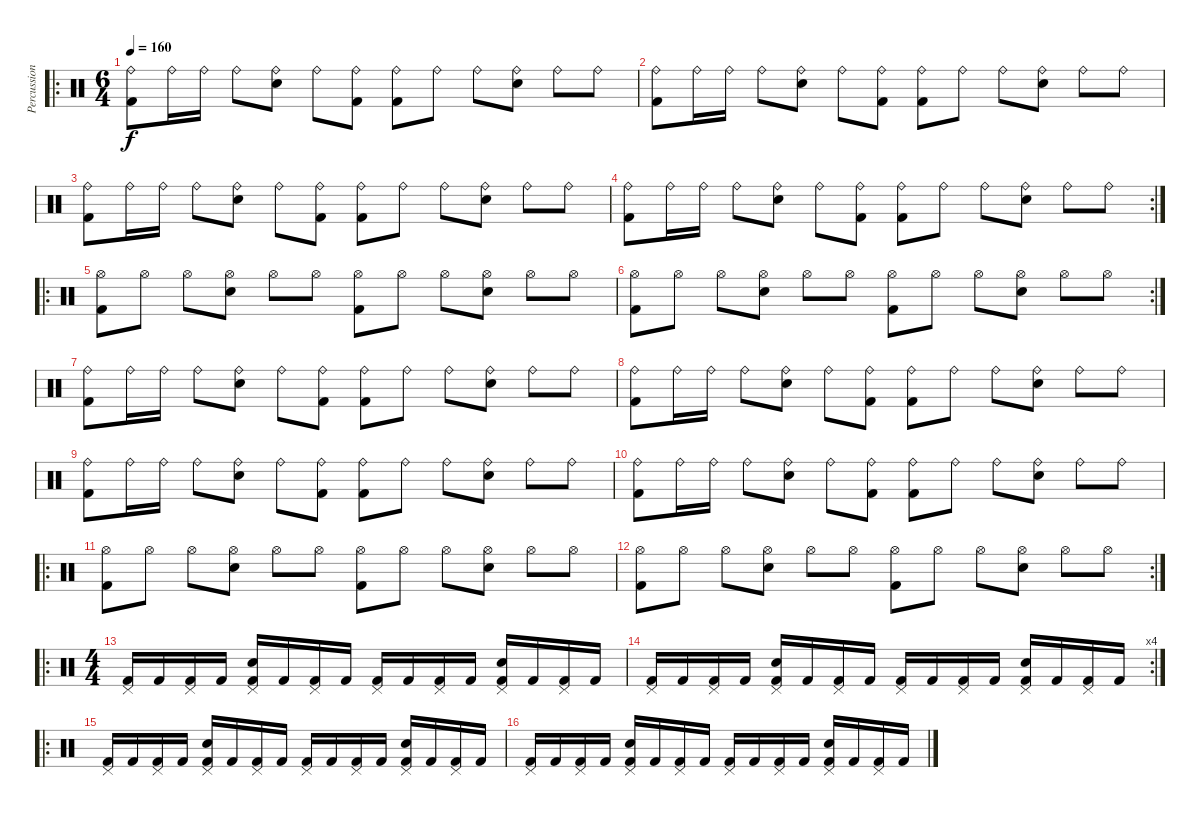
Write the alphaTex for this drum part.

\track ("Percussion" "Percussion") {instrument percussion}
\staff {score}
\articulation defaults
\ro
\ts (6 4)
\tempo 160
\clef neutral
\ks c
("Ride (bell)" "Kick (hit) 2").8{dy f} "Ride (bell)".16 "Ride (bell)".16 "Ride (bell)".8 ("Ride (bell)" "Snare (hit) 2").8 "Ride (bell)".8 ("Ride (bell)" "Kick (hit) 2").8 ("Ride (bell)" "Kick (hit) 2").8 "Ride (bell)".8 "Ride (bell)".8 ("Ride (bell)" "Snare (hit) 2").8 "Ride (bell)".8 "Ride (bell)".8 |
("Ride (bell)" "Kick (hit) 2").8 "Ride (bell)".16 "Ride (bell)".16 "Ride (bell)".8 ("Ride (bell)" "Snare (hit) 2").8 "Ride (bell)".8 ("Ride (bell)" "Kick (hit) 2").8 ("Ride (bell)" "Kick (hit) 2").8 "Ride (bell)".8 "Ride (bell)".8 ("Ride (bell)" "Snare (hit) 2").8 "Ride (bell)".8 "Ride (bell)".8 |
("Ride (bell)" "Kick (hit) 2").8 "Ride (bell)".16 "Ride (bell)".16 "Ride (bell)".8 ("Ride (bell)" "Snare (hit) 2").8 "Ride (bell)".8 ("Ride (bell)" "Kick (hit) 2").8 ("Ride (bell)" "Kick (hit) 2").8 "Ride (bell)".8 "Ride (bell)".8 ("Ride (bell)" "Snare (hit) 2").8 "Ride (bell)".8 "Ride (bell)".8 |
\rc 2
("Ride (bell)" "Kick (hit) 2").8 "Ride (bell)".16 "Ride (bell)".16 "Ride (bell)".8 ("Ride (bell)" "Snare (hit) 2").8 "Ride (bell)".8 ("Ride (bell)" "Kick (hit) 2").8 ("Ride (bell)" "Kick (hit) 2").8 "Ride (bell)".8 "Ride (bell)".8 ("Ride (bell)" "Snare (hit) 2").8 "Ride (bell)".8 "Ride (bell)".8 |
\ro
("Hi-Hat (open)" "Kick (hit) 2").8 "Hi-Hat (open)".8 "Hi-Hat (open)".8 ("Hi-Hat (open)" "Snare (hit) 2").8 "Hi-Hat (open)".8 "Hi-Hat (open)".8 ("Hi-Hat (open)" "Kick (hit) 2").8 "Hi-Hat (open)".8 "Hi-Hat (open)".8 ("Hi-Hat (open)" "Snare (hit) 2").8 "Hi-Hat (open)".8 "Hi-Hat (open)".8 |
\rc 2
("Hi-Hat (open)" "Kick (hit) 2").8 "Hi-Hat (open)".8 "Hi-Hat (open)".8 ("Hi-Hat (open)" "Snare (hit) 2").8 "Hi-Hat (open)".8 "Hi-Hat (open)".8 ("Hi-Hat (open)" "Kick (hit) 2").8 "Hi-Hat (open)".8 "Hi-Hat (open)".8 ("Hi-Hat (open)" "Snare (hit) 2").8 "Hi-Hat (open)".8 "Hi-Hat (open)".8 |
("Ride (bell)" "Kick (hit) 2").8 "Ride (bell)".16 "Ride (bell)".16 "Ride (bell)".8 ("Ride (bell)" "Snare (hit) 2").8 "Ride (bell)".8 ("Ride (bell)" "Kick (hit) 2").8 ("Ride (bell)" "Kick (hit) 2").8 "Ride (bell)".8 "Ride (bell)".8 ("Ride (bell)" "Snare (hit) 2").8 "Ride (bell)".8 "Ride (bell)".8 |
("Ride (bell)" "Kick (hit) 2").8 "Ride (bell)".16 "Ride (bell)".16 "Ride (bell)".8 ("Ride (bell)" "Snare (hit) 2").8 "Ride (bell)".8 ("Ride (bell)" "Kick (hit) 2").8 ("Ride (bell)" "Kick (hit) 2").8 "Ride (bell)".8 "Ride (bell)".8 ("Ride (bell)" "Snare (hit) 2").8 "Ride (bell)".8 "Ride (bell)".8 |
("Ride (bell)" "Kick (hit) 2").8 "Ride (bell)".16 "Ride (bell)".16 "Ride (bell)".8 ("Ride (bell)" "Snare (hit) 2").8 "Ride (bell)".8 ("Ride (bell)" "Kick (hit) 2").8 ("Ride (bell)" "Kick (hit) 2").8 "Ride (bell)".8 "Ride (bell)".8 ("Ride (bell)" "Snare (hit) 2").8 "Ride (bell)".8 "Ride (bell)".8 |
("Ride (bell)" "Kick (hit) 2").8 "Ride (bell)".16 "Ride (bell)".16 "Ride (bell)".8 ("Ride (bell)" "Snare (hit) 2").8 "Ride (bell)".8 ("Ride (bell)" "Kick (hit) 2").8 ("Ride (bell)" "Kick (hit) 2").8 "Ride (bell)".8 "Ride (bell)".8 ("Ride (bell)" "Snare (hit) 2").8 "Ride (bell)".8 "Ride (bell)".8 |
\ro
("Hi-Hat (open)" "Kick (hit) 2").8 "Hi-Hat (open)".8 "Hi-Hat (open)".8 ("Hi-Hat (open)" "Snare (hit) 2").8 "Hi-Hat (open)".8 "Hi-Hat (open)".8 ("Hi-Hat (open)" "Kick (hit) 2").8 "Hi-Hat (open)".8 "Hi-Hat (open)".8 ("Hi-Hat (open)" "Snare (hit) 2").8 "Hi-Hat (open)".8 "Hi-Hat (open)".8 |
\rc 2
("Hi-Hat (open)" "Kick (hit) 2").8 "Hi-Hat (open)".8 "Hi-Hat (open)".8 ("Hi-Hat (open)" "Snare (hit) 2").8 "Hi-Hat (open)".8 "Hi-Hat (open)".8 ("Hi-Hat (open)" "Kick (hit) 2").8 "Hi-Hat (open)".8 "Hi-Hat (open)".8 ("Hi-Hat (open)" "Snare (hit) 2").8 "Hi-Hat (open)".8 "Hi-Hat (open)".8 |
\ro
\ts (4 4)
("Pedal Hi-Hat (hit)" "Kick (hit) 2").16 "Kick (hit) 2".16 ("Pedal Hi-Hat (hit)" "Kick (hit) 2").16 "Kick (hit) 2".16 ("Pedal Hi-Hat (hit)" "Kick (hit) 2" "Snare (hit) 2").16 "Kick (hit) 2".16 ("Pedal Hi-Hat (hit)" "Kick (hit) 2").16 "Kick (hit) 2".16 ("Pedal Hi-Hat (hit)" "Kick (hit) 2").16 "Kick (hit) 2".16 ("Pedal Hi-Hat (hit)" "Kick (hit) 2").16 "Kick (hit) 2".16 ("Pedal Hi-Hat (hit)" "Kick (hit) 2" "Snare (hit) 2").16 "Kick (hit) 2".16 ("Pedal Hi-Hat (hit)" "Kick (hit) 2").16 "Kick (hit) 2".16 |
\rc 4
("Pedal Hi-Hat (hit)" "Kick (hit) 2").16 "Kick (hit) 2".16 ("Pedal Hi-Hat (hit)" "Kick (hit) 2").16 "Kick (hit) 2".16 ("Pedal Hi-Hat (hit)" "Kick (hit) 2" "Snare (hit) 2").16 "Kick (hit) 2".16 ("Pedal Hi-Hat (hit)" "Kick (hit) 2").16 "Kick (hit) 2".16 ("Pedal Hi-Hat (hit)" "Kick (hit) 2").16 "Kick (hit) 2".16 ("Pedal Hi-Hat (hit)" "Kick (hit) 2").16 "Kick (hit) 2".16 ("Pedal Hi-Hat (hit)" "Kick (hit) 2" "Snare (hit) 2").16 "Kick (hit) 2".16 ("Pedal Hi-Hat (hit)" "Kick (hit) 2").16 "Kick (hit) 2".16 |
\ro
("Pedal Hi-Hat (hit)" "Kick (hit) 2").16 "Kick (hit) 2".16 ("Pedal Hi-Hat (hit)" "Kick (hit) 2").16 "Kick (hit) 2".16 ("Pedal Hi-Hat (hit)" "Kick (hit) 2" "Snare (hit) 2").16 "Kick (hit) 2".16 ("Pedal Hi-Hat (hit)" "Kick (hit) 2").16 "Kick (hit) 2".16 ("Pedal Hi-Hat (hit)" "Kick (hit) 2").16 "Kick (hit) 2".16 ("Pedal Hi-Hat (hit)" "Kick (hit) 2").16 "Kick (hit) 2".16 ("Pedal Hi-Hat (hit)" "Kick (hit) 2" "Snare (hit) 2").16 "Kick (hit) 2".16 ("Pedal Hi-Hat (hit)" "Kick (hit) 2").16 "Kick (hit) 2".16 |
("Pedal Hi-Hat (hit)" "Kick (hit) 2").16 "Kick (hit) 2".16 ("Pedal Hi-Hat (hit)" "Kick (hit) 2").16 "Kick (hit) 2".16 ("Pedal Hi-Hat (hit)" "Kick (hit) 2" "Snare (hit) 2").16 "Kick (hit) 2".16 ("Pedal Hi-Hat (hit)" "Kick (hit) 2").16 "Kick (hit) 2".16 ("Pedal Hi-Hat (hit)" "Kick (hit) 2").16 "Kick (hit) 2".16 ("Pedal Hi-Hat (hit)" "Kick (hit) 2").16 "Kick (hit) 2".16 ("Pedal Hi-Hat (hit)" "Kick (hit) 2" "Snare (hit) 2").16 "Kick (hit) 2".16 ("Pedal Hi-Hat (hit)" "Kick (hit) 2").16 "Kick (hit) 2".16
